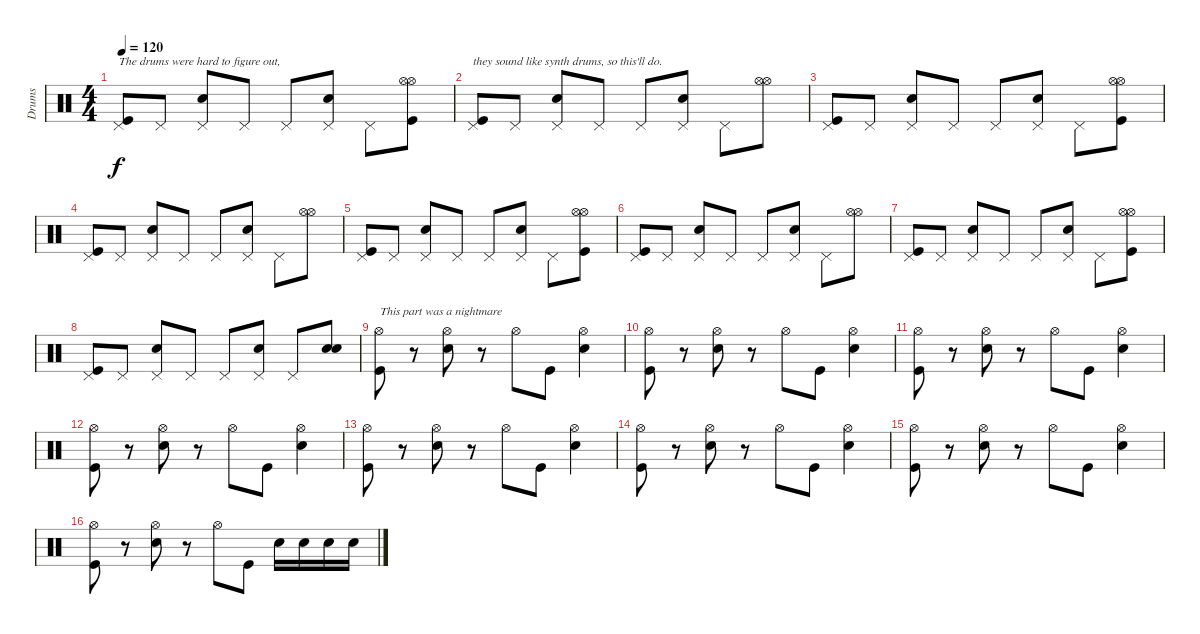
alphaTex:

\track ("Drums" "Drums") {instrument percussion}
\staff {score}
\articulation defaults
\ts (4 4)
\tempo 120
\clef neutral
\ks c
("Pedal Hi-Hat (hit)" "Kick (hit)").8{txt "The drums were hard to figure out, " dy f} "Pedal Hi-Hat (hit)".8 ("Pedal Hi-Hat (hit)" "Snare (hit) 2").8 "Pedal Hi-Hat (hit)".8 "Pedal Hi-Hat (hit)".8 ("Pedal Hi-Hat (hit)" "Snare (hit) 2").8 "Pedal Hi-Hat (hit)".8 ("Hi-Hat (open)" "Hi-Hat (open)" "Kick (hit)").8 |
("Pedal Hi-Hat (hit)" "Kick (hit)").8{txt "they sound like synth drums, so this'll do."} "Pedal Hi-Hat (hit)".8 ("Pedal Hi-Hat (hit)" "Snare (hit) 2").8 "Pedal Hi-Hat (hit)".8 "Pedal Hi-Hat (hit)".8 ("Pedal Hi-Hat (hit)" "Snare (hit) 2").8 "Pedal Hi-Hat (hit)".8 ("Hi-Hat (open)" "Hi-Hat (open)").8 |
("Pedal Hi-Hat (hit)" "Kick (hit)").8 "Pedal Hi-Hat (hit)".8 ("Pedal Hi-Hat (hit)" "Snare (hit) 2").8 "Pedal Hi-Hat (hit)".8 "Pedal Hi-Hat (hit)".8 ("Pedal Hi-Hat (hit)" "Snare (hit) 2").8 "Pedal Hi-Hat (hit)".8 ("Hi-Hat (open)" "Hi-Hat (open)" "Kick (hit)").8 |
("Pedal Hi-Hat (hit)" "Kick (hit)").8 "Pedal Hi-Hat (hit)".8 ("Pedal Hi-Hat (hit)" "Snare (hit) 2").8 "Pedal Hi-Hat (hit)".8 "Pedal Hi-Hat (hit)".8 ("Pedal Hi-Hat (hit)" "Snare (hit) 2").8 "Pedal Hi-Hat (hit)".8 ("Hi-Hat (open)" "Hi-Hat (open)").8 |
("Pedal Hi-Hat (hit)" "Kick (hit)").8 "Pedal Hi-Hat (hit)".8 ("Pedal Hi-Hat (hit)" "Snare (hit) 2").8 "Pedal Hi-Hat (hit)".8 "Pedal Hi-Hat (hit)".8 ("Pedal Hi-Hat (hit)" "Snare (hit) 2").8 "Pedal Hi-Hat (hit)".8 ("Hi-Hat (open)" "Hi-Hat (open)" "Kick (hit)").8 |
("Pedal Hi-Hat (hit)" "Kick (hit)").8 "Pedal Hi-Hat (hit)".8 ("Pedal Hi-Hat (hit)" "Snare (hit) 2").8 "Pedal Hi-Hat (hit)".8 "Pedal Hi-Hat (hit)".8 ("Pedal Hi-Hat (hit)" "Snare (hit) 2").8 "Pedal Hi-Hat (hit)".8 ("Hi-Hat (open)" "Hi-Hat (open)").8 |
("Pedal Hi-Hat (hit)" "Kick (hit)").8 "Pedal Hi-Hat (hit)".8 ("Pedal Hi-Hat (hit)" "Snare (hit) 2").8 "Pedal Hi-Hat (hit)".8 "Pedal Hi-Hat (hit)".8 ("Pedal Hi-Hat (hit)" "Snare (hit) 2").8 "Pedal Hi-Hat (hit)".8 ("Hi-Hat (open)" "Hi-Hat (open)" "Kick (hit)").8 |
("Pedal Hi-Hat (hit)" "Kick (hit)").8 "Pedal Hi-Hat (hit)".8 ("Pedal Hi-Hat (hit)" "Snare (hit) 2").8 "Pedal Hi-Hat (hit)".8 "Pedal Hi-Hat (hit)".8 ("Pedal Hi-Hat (hit)" "Snare (hit) 2").8 "Pedal Hi-Hat (hit)".8 ("Snare (hit) 2" "Electric Snare (hit)").8{volume 16} |
("Hi-Hat (open)" "Kick (hit)").8{txt "This part was a nightmare"} r.8 ("Hi-Hat (open)" "Snare (hit) 2").8 r.8 "Hi-Hat (open)".8 "Kick (hit)".8 ("Hi-Hat (open)" "Snare (hit) 2").4 |
("Hi-Hat (open)" "Kick (hit)").8 r.8 ("Hi-Hat (open)" "Snare (hit) 2").8 r.8 "Hi-Hat (open)".8 "Kick (hit)".8 ("Hi-Hat (open)" "Snare (hit) 2").4 |
("Hi-Hat (open)" "Kick (hit)").8 r.8 ("Hi-Hat (open)" "Snare (hit) 2").8 r.8 "Hi-Hat (open)".8 "Kick (hit)".8 ("Hi-Hat (open)" "Snare (hit) 2").4 |
("Hi-Hat (open)" "Kick (hit)").8 r.8 ("Hi-Hat (open)" "Snare (hit) 2").8 r.8 "Hi-Hat (open)".8 "Kick (hit)".8 ("Hi-Hat (open)" "Snare (hit) 2").4 |
("Hi-Hat (open)" "Kick (hit)").8 r.8 ("Hi-Hat (open)" "Snare (hit) 2").8 r.8 "Hi-Hat (open)".8 "Kick (hit)".8 ("Hi-Hat (open)" "Snare (hit) 2").4 |
("Hi-Hat (open)" "Kick (hit)").8 r.8 ("Hi-Hat (open)" "Snare (hit) 2").8 r.8 "Hi-Hat (open)".8 "Kick (hit)".8 ("Hi-Hat (open)" "Snare (hit) 2").4 |
("Hi-Hat (open)" "Kick (hit)").8 r.8 ("Hi-Hat (open)" "Snare (hit) 2").8 r.8 "Hi-Hat (open)".8 "Kick (hit)".8 ("Hi-Hat (open)" "Snare (hit) 2").4 |
("Hi-Hat (open)" "Kick (hit)").8 r.8 ("Hi-Hat (open)" "Snare (hit) 2").8 r.8 "Hi-Hat (open)".8 "Kick (hit)".8 "Snare (hit) 2".16 "Snare (hit) 2".16 "Snare (hit) 2".16 "Snare (hit) 2".16
